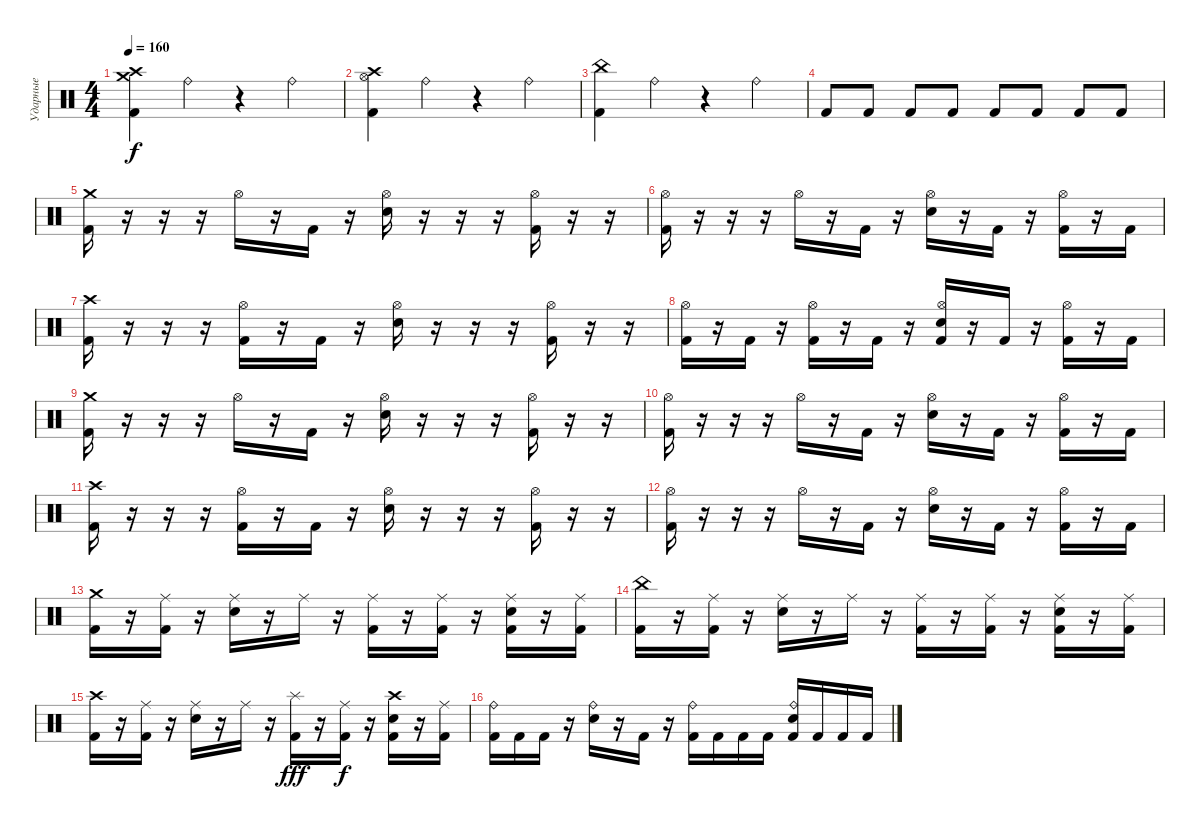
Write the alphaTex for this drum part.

\track ("Ударные" "Ударные") {instrument percussion}
\staff {score}
\articulation defaults
\ts (4 4)
\tempo 160
\clef neutral
\ks c
("Crash medium (hit)" "Crash high (hit)" "Kick (hit) 2").4{dy f} "Ride (bell)".4 r.4 "Ride (bell)".4 |
("Crash high (hit)" "Hi-Hat (open)" "Kick (hit) 2").4 "Ride (bell)".4 r.4 "Ride (bell)".4 |
("China (hit)" "Kick (hit) 2").4 "Ride (bell)".4 r.4 "Ride (bell)".4 |
"Kick (hit) 2".8 "Kick (hit) 2".8 "Kick (hit) 2".8 "Kick (hit) 2".8 "Kick (hit) 2".8 "Kick (hit) 2".8 "Kick (hit) 2".8 "Kick (hit) 2".8 |
("Crash medium (hit)" "Kick (hit) 2").16 r.16 r.16 r.16 "Hi-Hat (open)".16 r.16 "Kick (hit) 2".16 r.16 ("Hi-Hat (open)" "Snare (hit) 2").16 r.16 r.16 r.16 ("Hi-Hat (open)" "Kick (hit) 2").16 r.16 r.16 |
("Hi-Hat (open)" "Kick (hit) 2").16 r.16 r.16 r.16 "Hi-Hat (open)".16 r.16 "Kick (hit) 2".16 r.16 ("Hi-Hat (open)" "Snare (hit) 2").16 r.16 "Kick (hit) 2".16 r.16 ("Hi-Hat (open)" "Kick (hit) 2").16 r.16 "Kick (hit) 2".16 |
("Crash high (hit)" "Kick (hit) 2").16 r.16 r.16 r.16 ("Hi-Hat (open)" "Kick (hit) 2").16 r.16 "Kick (hit) 2".16 r.16 ("Hi-Hat (open)" "Snare (hit) 2").16 r.16 r.16 r.16 ("Hi-Hat (open)" "Kick (hit) 2").16 r.16 r.16 |
("Hi-Hat (open)" "Kick (hit) 2").16 r.16 "Kick (hit) 2".16 r.16 ("Hi-Hat (open)" "Kick (hit) 2").16 r.16 "Kick (hit) 2".16 r.16 ("Hi-Hat (open)" "Snare (hit) 2" "Kick (hit) 2").16 r.16 "Kick (hit) 2".16 r.16 ("Hi-Hat (open)" "Kick (hit) 2").16 r.16 "Kick (hit) 2".16 |
("Crash medium (hit)" "Kick (hit) 2").16 r.16 r.16 r.16 "Hi-Hat (open)".16 r.16 "Kick (hit) 2".16 r.16 ("Hi-Hat (open)" "Snare (hit) 2").16 r.16 r.16 r.16 ("Hi-Hat (open)" "Kick (hit) 2").16 r.16 r.16 |
("Hi-Hat (open)" "Kick (hit) 2").16 r.16 r.16 r.16 "Hi-Hat (open)".16 r.16 "Kick (hit) 2".16 r.16 ("Hi-Hat (open)" "Snare (hit) 2").16 r.16 "Kick (hit) 2".16 r.16 ("Hi-Hat (open)" "Kick (hit) 2").16 r.16 "Kick (hit) 2".16 |
("Crash high (hit)" "Kick (hit) 2").16 r.16 r.16 r.16 ("Hi-Hat (open)" "Kick (hit) 2").16 r.16 "Kick (hit) 2".16 r.16 ("Hi-Hat (open)" "Snare (hit) 2").16 r.16 r.16 r.16 ("Hi-Hat (open)" "Kick (hit) 2").16 r.16 r.16 |
("Hi-Hat (open)" "Kick (hit) 2").16 r.16 r.16 r.16 "Hi-Hat (open)".16 r.16 "Kick (hit) 2".16 r.16 ("Hi-Hat (open)" "Snare (hit) 2").16 r.16 "Kick (hit) 2".16 r.16 ("Hi-Hat (open)" "Kick (hit) 2").16 r.16 "Kick (hit) 2".16 |
("Crash medium (hit)" "Kick (hit) 2").16 r.16 ("Ride (middle)" "Kick (hit) 2").16 r.16 ("Ride (middle)" "Snare (hit) 2").16 r.16 "Ride (middle)".16 r.16 ("Ride (middle)" "Kick (hit) 2").16 r.16 ("Ride (middle)" "Kick (hit) 2").16 r.16 ("Ride (middle)" "Snare (hit) 2" "Kick (hit) 2").16 r.16 ("Ride (middle)" "Kick (hit) 2").16 |
("China (hit)" "Kick (hit) 2").16 r.16 ("Ride (middle)" "Kick (hit) 2").16 r.16 ("Ride (middle)" "Snare (hit) 2").16 r.16 "Ride (middle)".16 r.16 ("Ride (middle)" "Kick (hit) 2").16 r.16 ("Ride (middle)" "Kick (hit) 2").16 r.16 ("Ride (middle)" "Snare (hit) 2" "Kick (hit) 2").16 r.16 ("Ride (middle)" "Kick (hit) 2").16 |
("Crash high (hit)" "Kick (hit) 2").16 r.16 ("Ride (middle)" "Kick (hit) 2").16 r.16 ("Ride (middle)" "Snare (hit) 2").16 r.16 "Ride (middle)".16 r.16 ("Splash (hit)" "Kick (hit) 2").16{dy fff} r.16 ("Ride (middle)" "Kick (hit) 2").16{dy f} r.16 ("Crash high (hit)" "Snare (hit) 2" "Kick (hit) 2").16 r.16 ("Ride (middle)" "Kick (hit) 2").16 |
("Ride (bell)" "Kick (hit) 2").16 "Kick (hit) 2".16 "Kick (hit) 2".16 r.16 ("Ride (bell)" "Snare (hit) 2").16 r.16 "Kick (hit) 2".16 r.16 ("Ride (bell)" "Kick (hit) 2").16 "Kick (hit) 2".16 "Kick (hit) 2".16 "Kick (hit) 2".16 ("Ride (bell)" "Snare (hit) 2" "Kick (hit) 2").16 "Kick (hit) 2".16 "Kick (hit) 2".16 "Kick (hit) 2".16
